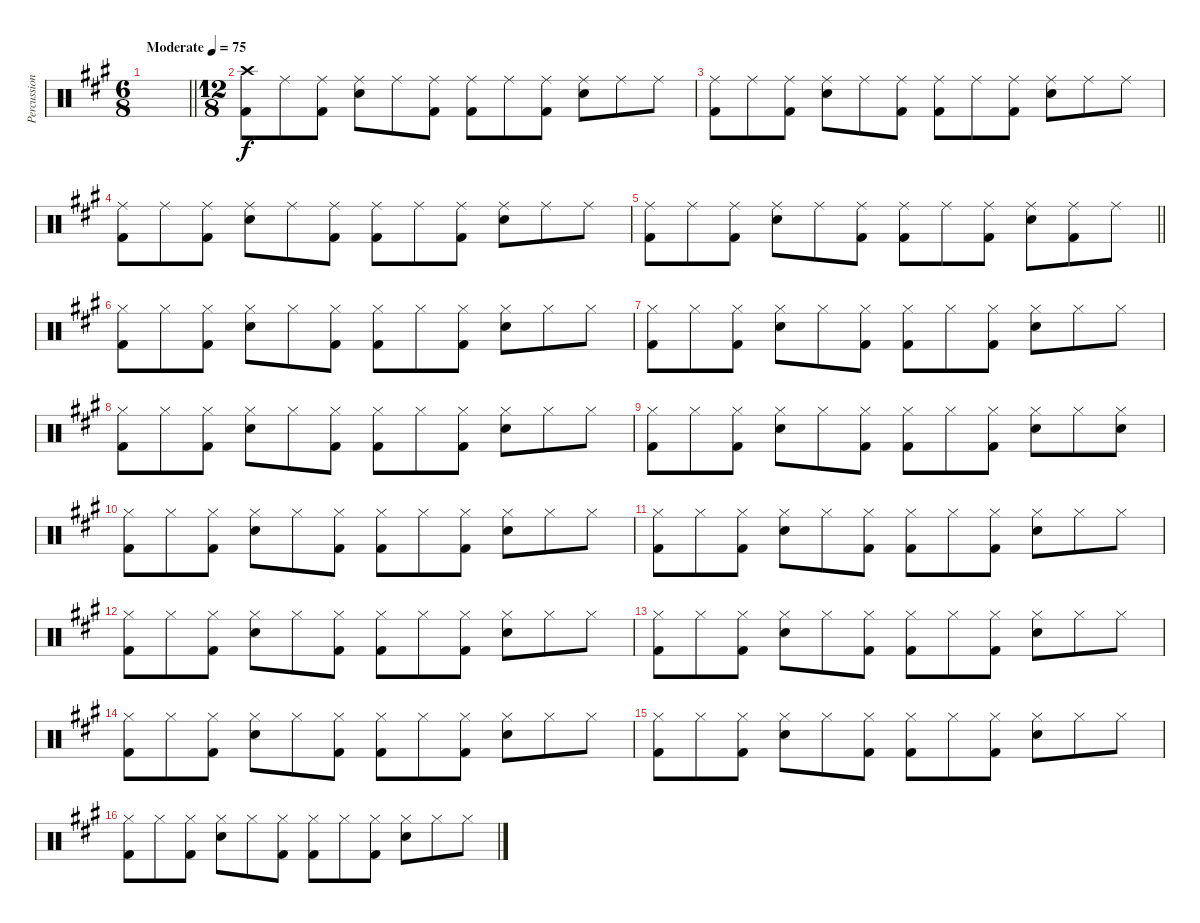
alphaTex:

\track ("Percussion" "Percussion") {instrument percussion}
\staff {score}
\articulation defaults
\ts (6 8)
\tempo (75 "Moderate")
\clef neutral
\barLineRight lightlight
\ks a
|
\ts (12 8)
("Crash high (hit)" "Kick (hit) 2").8 "Ride (middle)".8 ("Ride (middle)" "Kick (hit) 2").8 ("Ride (middle)" "Snare (hit) 2").8 "Ride (middle)".8 ("Ride (middle)" "Kick (hit) 2").8 ("Ride (middle)" "Kick (hit) 2").8 "Ride (middle)".8 ("Ride (middle)" "Kick (hit) 2").8 ("Ride (middle)" "Snare (hit) 2").8 "Ride (middle)".8 "Ride (middle)".8 |
("Ride (middle)" "Kick (hit) 2").8 "Ride (middle)".8 ("Ride (middle)" "Kick (hit) 2").8 ("Ride (middle)" "Snare (hit) 2").8 "Ride (middle)".8 ("Ride (middle)" "Kick (hit) 2").8 ("Ride (middle)" "Kick (hit) 2").8 "Ride (middle)".8 ("Ride (middle)" "Kick (hit) 2").8 ("Ride (middle)" "Snare (hit) 2").8 "Ride (middle)".8 "Ride (middle)".8 |
("Ride (middle)" "Kick (hit) 2").8 "Ride (middle)".8 ("Ride (middle)" "Kick (hit) 2").8 ("Ride (middle)" "Snare (hit) 2").8 "Ride (middle)".8 ("Ride (middle)" "Kick (hit) 2").8 ("Ride (middle)" "Kick (hit) 2").8 "Ride (middle)".8 ("Ride (middle)" "Kick (hit) 2").8 ("Ride (middle)" "Snare (hit) 2").8 "Ride (middle)".8 "Ride (middle)".8 |
\barLineRight lightlight
("Ride (middle)" "Kick (hit) 2").8 "Ride (middle)".8 ("Ride (middle)" "Kick (hit) 2").8 ("Ride (middle)" "Snare (hit) 2").8 "Ride (middle)".8 ("Ride (middle)" "Kick (hit) 2").8 ("Ride (middle)" "Kick (hit) 2").8 "Ride (middle)".8 ("Ride (middle)" "Kick (hit) 2").8 ("Ride (middle)" "Snare (hit) 2").8 ("Ride (middle)" "Kick (hit) 2").8 "Ride (middle)".8 |
("Hi-Hat (closed)" "Kick (hit) 2").8 "Hi-Hat (closed)".8 ("Hi-Hat (closed)" "Kick (hit) 2").8 ("Hi-Hat (closed)" "Snare (hit) 2").8 "Hi-Hat (closed)".8 ("Hi-Hat (closed)" "Kick (hit) 2").8 ("Hi-Hat (closed)" "Kick (hit) 2").8 "Hi-Hat (closed)".8 ("Hi-Hat (closed)" "Kick (hit) 2").8 ("Hi-Hat (closed)" "Snare (hit) 2").8 "Hi-Hat (closed)".8 "Hi-Hat (closed)".8 |
("Hi-Hat (closed)" "Kick (hit) 2").8 "Hi-Hat (closed)".8 ("Hi-Hat (closed)" "Kick (hit) 2").8 ("Hi-Hat (closed)" "Snare (hit) 2").8 "Hi-Hat (closed)".8 ("Hi-Hat (closed)" "Kick (hit) 2").8 ("Hi-Hat (closed)" "Kick (hit) 2").8 "Hi-Hat (closed)".8 ("Hi-Hat (closed)" "Kick (hit) 2").8 ("Hi-Hat (closed)" "Snare (hit) 2").8 "Hi-Hat (closed)".8 "Hi-Hat (closed)".8 |
("Hi-Hat (closed)" "Kick (hit) 2").8 "Hi-Hat (closed)".8 ("Hi-Hat (closed)" "Kick (hit) 2").8 ("Hi-Hat (closed)" "Snare (hit) 2").8 "Hi-Hat (closed)".8 ("Hi-Hat (closed)" "Kick (hit) 2").8 ("Hi-Hat (closed)" "Kick (hit) 2").8 "Hi-Hat (closed)".8 ("Hi-Hat (closed)" "Kick (hit) 2").8 ("Hi-Hat (closed)" "Snare (hit) 2").8 "Hi-Hat (closed)".8 "Hi-Hat (closed)".8 |
("Hi-Hat (closed)" "Kick (hit) 2").8 "Hi-Hat (closed)".8 ("Hi-Hat (closed)" "Kick (hit) 2").8 ("Hi-Hat (closed)" "Snare (hit) 2").8 "Hi-Hat (closed)".8 ("Hi-Hat (closed)" "Kick (hit) 2").8 ("Hi-Hat (closed)" "Kick (hit) 2").8 "Hi-Hat (closed)".8 ("Hi-Hat (closed)" "Kick (hit) 2").8 ("Hi-Hat (closed)" "Snare (hit) 2").8 "Hi-Hat (closed)".8 ("Hi-Hat (closed)" "Snare (hit) 2").8 |
("Hi-Hat (closed)" "Kick (hit) 2").8 "Hi-Hat (closed)".8 ("Hi-Hat (closed)" "Kick (hit) 2").8 ("Hi-Hat (closed)" "Snare (hit) 2").8 "Hi-Hat (closed)".8 ("Hi-Hat (closed)" "Kick (hit) 2").8 ("Hi-Hat (closed)" "Kick (hit) 2").8 "Hi-Hat (closed)".8 ("Hi-Hat (closed)" "Kick (hit) 2").8 ("Hi-Hat (closed)" "Snare (hit) 2").8 "Hi-Hat (closed)".8 "Hi-Hat (closed)".8 |
("Hi-Hat (closed)" "Kick (hit) 2").8 "Hi-Hat (closed)".8 ("Hi-Hat (closed)" "Kick (hit) 2").8 ("Hi-Hat (closed)" "Snare (hit) 2").8 "Hi-Hat (closed)".8 ("Hi-Hat (closed)" "Kick (hit) 2").8 ("Hi-Hat (closed)" "Kick (hit) 2").8 "Hi-Hat (closed)".8 ("Hi-Hat (closed)" "Kick (hit) 2").8 ("Hi-Hat (closed)" "Snare (hit) 2").8 "Hi-Hat (closed)".8 "Hi-Hat (closed)".8 |
("Hi-Hat (closed)" "Kick (hit) 2").8 "Hi-Hat (closed)".8 ("Hi-Hat (closed)" "Kick (hit) 2").8 ("Hi-Hat (closed)" "Snare (hit) 2").8 "Hi-Hat (closed)".8 ("Hi-Hat (closed)" "Kick (hit) 2").8 ("Hi-Hat (closed)" "Kick (hit) 2").8 "Hi-Hat (closed)".8 ("Hi-Hat (closed)" "Kick (hit) 2").8 ("Hi-Hat (closed)" "Snare (hit) 2").8 "Hi-Hat (closed)".8 "Hi-Hat (closed)".8 |
("Hi-Hat (closed)" "Kick (hit) 2").8 "Hi-Hat (closed)".8 ("Hi-Hat (closed)" "Kick (hit) 2").8 ("Hi-Hat (closed)" "Snare (hit) 2").8 "Hi-Hat (closed)".8 ("Hi-Hat (closed)" "Kick (hit) 2").8 ("Hi-Hat (closed)" "Kick (hit) 2").8 "Hi-Hat (closed)".8 ("Hi-Hat (closed)" "Kick (hit) 2").8 ("Hi-Hat (closed)" "Snare (hit) 2").8 "Hi-Hat (closed)".8 "Hi-Hat (closed)".8 |
("Hi-Hat (closed)" "Kick (hit) 2").8 "Hi-Hat (closed)".8 ("Hi-Hat (closed)" "Kick (hit) 2").8 ("Hi-Hat (closed)" "Snare (hit) 2").8 "Hi-Hat (closed)".8 ("Hi-Hat (closed)" "Kick (hit) 2").8 ("Hi-Hat (closed)" "Kick (hit) 2").8 "Hi-Hat (closed)".8 ("Hi-Hat (closed)" "Kick (hit) 2").8 ("Hi-Hat (closed)" "Snare (hit) 2").8 "Hi-Hat (closed)".8 "Hi-Hat (closed)".8 |
("Hi-Hat (closed)" "Kick (hit) 2").8 "Hi-Hat (closed)".8 ("Hi-Hat (closed)" "Kick (hit) 2").8 ("Hi-Hat (closed)" "Snare (hit) 2").8 "Hi-Hat (closed)".8 ("Hi-Hat (closed)" "Kick (hit) 2").8 ("Hi-Hat (closed)" "Kick (hit) 2").8 "Hi-Hat (closed)".8 ("Hi-Hat (closed)" "Kick (hit) 2").8 ("Hi-Hat (closed)" "Snare (hit) 2").8 "Hi-Hat (closed)".8 "Hi-Hat (closed)".8 |
("Hi-Hat (closed)" "Kick (hit) 2").8 "Hi-Hat (closed)".8 ("Hi-Hat (closed)" "Kick (hit) 2").8 ("Hi-Hat (closed)" "Snare (hit) 2").8 "Hi-Hat (closed)".8 ("Hi-Hat (closed)" "Kick (hit) 2").8 ("Hi-Hat (closed)" "Kick (hit) 2").8 "Hi-Hat (closed)".8 ("Hi-Hat (closed)" "Kick (hit) 2").8 ("Hi-Hat (closed)" "Snare (hit) 2").8 "Hi-Hat (closed)".8 "Hi-Hat (closed)".8
